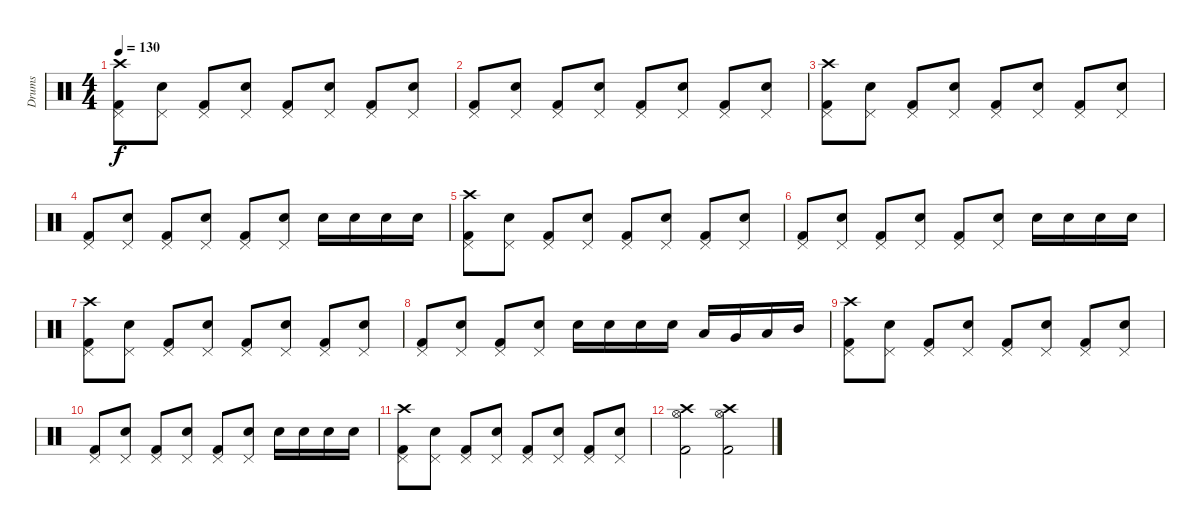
\track ("Drums" "Drums") {instrument percussion}
\staff {score}
\articulation defaults
\ts (4 4)
\tempo 130
\clef neutral
\ks c
("Kick (hit) 2" "Pedal Hi-Hat (hit)" "Crash high (hit)").8{dy f} ("Electric Snare (hit)" "Pedal Hi-Hat (hit)").8 ("Kick (hit) 2" "Pedal Hi-Hat (hit)").8 ("Electric Snare (hit)" "Pedal Hi-Hat (hit)").8 ("Kick (hit) 2" "Pedal Hi-Hat (hit)").8 ("Electric Snare (hit)" "Pedal Hi-Hat (hit)").8 ("Kick (hit) 2" "Pedal Hi-Hat (hit)").8 ("Electric Snare (hit)" "Pedal Hi-Hat (hit)").8 |
("Kick (hit) 2" "Pedal Hi-Hat (hit)").8 ("Electric Snare (hit)" "Pedal Hi-Hat (hit)").8 ("Kick (hit) 2" "Pedal Hi-Hat (hit)").8 ("Electric Snare (hit)" "Pedal Hi-Hat (hit)").8 ("Kick (hit) 2" "Pedal Hi-Hat (hit)").8 ("Electric Snare (hit)" "Pedal Hi-Hat (hit)").8 ("Kick (hit) 2" "Pedal Hi-Hat (hit)").8 ("Electric Snare (hit)" "Pedal Hi-Hat (hit)").8 |
("Kick (hit) 2" "Pedal Hi-Hat (hit)" "Crash high (hit)").8 ("Electric Snare (hit)" "Pedal Hi-Hat (hit)").8 ("Kick (hit) 2" "Pedal Hi-Hat (hit)").8 ("Electric Snare (hit)" "Pedal Hi-Hat (hit)").8 ("Kick (hit) 2" "Pedal Hi-Hat (hit)").8 ("Electric Snare (hit)" "Pedal Hi-Hat (hit)").8 ("Kick (hit) 2" "Pedal Hi-Hat (hit)").8 ("Electric Snare (hit)" "Pedal Hi-Hat (hit)").8 |
("Kick (hit) 2" "Pedal Hi-Hat (hit)").8 ("Electric Snare (hit)" "Pedal Hi-Hat (hit)").8 ("Kick (hit) 2" "Pedal Hi-Hat (hit)").8 ("Electric Snare (hit)" "Pedal Hi-Hat (hit)").8 ("Kick (hit) 2" "Pedal Hi-Hat (hit)").8 ("Electric Snare (hit)" "Pedal Hi-Hat (hit)").8 "Electric Snare (hit)".16 "Electric Snare (hit)".16 "Electric Snare (hit)".16 "Electric Snare (hit)".16 |
("Kick (hit) 2" "Pedal Hi-Hat (hit)" "Crash high (hit)").8 ("Electric Snare (hit)" "Pedal Hi-Hat (hit)").8 ("Kick (hit) 2" "Pedal Hi-Hat (hit)").8 ("Electric Snare (hit)" "Pedal Hi-Hat (hit)").8 ("Kick (hit) 2" "Pedal Hi-Hat (hit)").8 ("Electric Snare (hit)" "Pedal Hi-Hat (hit)").8 ("Kick (hit) 2" "Pedal Hi-Hat (hit)").8 ("Electric Snare (hit)" "Pedal Hi-Hat (hit)").8 |
("Kick (hit) 2" "Pedal Hi-Hat (hit)").8 ("Electric Snare (hit)" "Pedal Hi-Hat (hit)").8 ("Kick (hit) 2" "Pedal Hi-Hat (hit)").8 ("Electric Snare (hit)" "Pedal Hi-Hat (hit)").8 ("Kick (hit) 2" "Pedal Hi-Hat (hit)").8 ("Electric Snare (hit)" "Pedal Hi-Hat (hit)").8 "Electric Snare (hit)".16 "Electric Snare (hit)".16 "Electric Snare (hit)".16 "Electric Snare (hit)".16 |
("Kick (hit) 2" "Pedal Hi-Hat (hit)" "Crash high (hit)").8 ("Electric Snare (hit)" "Pedal Hi-Hat (hit)").8 ("Kick (hit) 2" "Pedal Hi-Hat (hit)").8 ("Electric Snare (hit)" "Pedal Hi-Hat (hit)").8 ("Kick (hit) 2" "Pedal Hi-Hat (hit)").8 ("Electric Snare (hit)" "Pedal Hi-Hat (hit)").8 ("Kick (hit) 2" "Pedal Hi-Hat (hit)").8 ("Electric Snare (hit)" "Pedal Hi-Hat (hit)").8 |
("Kick (hit) 2" "Pedal Hi-Hat (hit)").8 ("Electric Snare (hit)" "Pedal Hi-Hat (hit)").8 ("Kick (hit) 2" "Pedal Hi-Hat (hit)").8 ("Electric Snare (hit)" "Pedal Hi-Hat (hit)").8 "Electric Snare (hit)".16 "Electric Snare (hit)".16 "Electric Snare (hit)".16 "Electric Snare (hit)".16 "Low Floor Tom (hit)".16 "Very Low Tom (hit)".16 "Low Tom (hit)".16 "Mid Tom (hit)".16 |
("Kick (hit) 2" "Pedal Hi-Hat (hit)" "Crash high (hit)").8 ("Electric Snare (hit)" "Pedal Hi-Hat (hit)").8 ("Kick (hit) 2" "Pedal Hi-Hat (hit)").8 ("Electric Snare (hit)" "Pedal Hi-Hat (hit)").8 ("Kick (hit) 2" "Pedal Hi-Hat (hit)").8 ("Electric Snare (hit)" "Pedal Hi-Hat (hit)").8 ("Kick (hit) 2" "Pedal Hi-Hat (hit)").8 ("Electric Snare (hit)" "Pedal Hi-Hat (hit)").8 |
("Kick (hit) 2" "Pedal Hi-Hat (hit)").8 ("Electric Snare (hit)" "Pedal Hi-Hat (hit)").8 ("Kick (hit) 2" "Pedal Hi-Hat (hit)").8 ("Electric Snare (hit)" "Pedal Hi-Hat (hit)").8 ("Kick (hit) 2" "Pedal Hi-Hat (hit)").8 ("Electric Snare (hit)" "Pedal Hi-Hat (hit)").8 "Electric Snare (hit)".16 "Electric Snare (hit)".16 "Electric Snare (hit)".16 "Electric Snare (hit)".16 |
("Kick (hit) 2" "Pedal Hi-Hat (hit)" "Crash high (hit)").8 ("Electric Snare (hit)" "Pedal Hi-Hat (hit)").8 ("Kick (hit) 2" "Pedal Hi-Hat (hit)").8 ("Electric Snare (hit)" "Pedal Hi-Hat (hit)").8 ("Kick (hit) 2" "Pedal Hi-Hat (hit)").8 ("Electric Snare (hit)" "Pedal Hi-Hat (hit)").8 ("Kick (hit) 2" "Pedal Hi-Hat (hit)").8 ("Electric Snare (hit)" "Pedal Hi-Hat (hit)").8 |
("Kick (hit) 2" "Hi-Hat (open)" "Crash high (hit)").2 ("Kick (hit) 2" "Hi-Hat (open)" "Crash high (hit)").2
